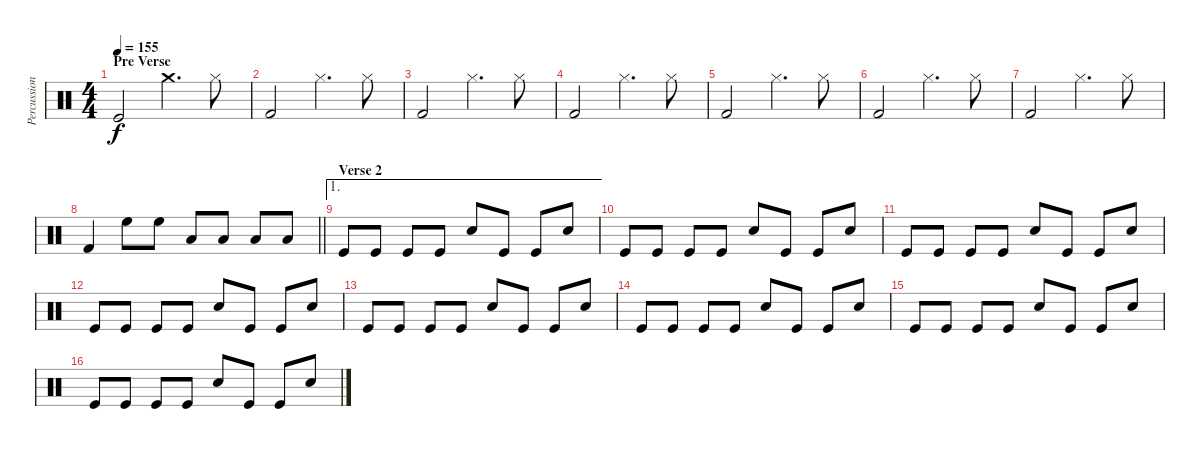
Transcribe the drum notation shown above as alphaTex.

\track ("Percussion" "Percussion") {instrument percussion}
\staff {score}
\articulation defaults
\ts (4 4)
\section ("" "Pre Verse")
\tempo 155
\clef neutral
\ks c "Kick (hit)".2{dy f} "Crash medium (hit)".4{d} "Hi-Hat (closed)".8
|
"Kick (hit) 2".2 "Hi-Hat (closed)".4{d} "Hi-Hat (closed)".8 |
"Kick (hit) 2".2 "Hi-Hat (closed)".4{d} "Hi-Hat (closed)".8 |
"Kick (hit) 2".2 "Hi-Hat (closed)".4{d} "Hi-Hat (closed)".8 |
"Kick (hit) 2".2 "Hi-Hat (closed)".4{d} "Hi-Hat (closed)".8 |
"Kick (hit) 2".2 "Hi-Hat (closed)".4{d} "Hi-Hat (closed)".8 |
"Kick (hit) 2".2 "Hi-Hat (closed)".4{d} "Hi-Hat (closed)".8 |
\barLineRight lightlight "Kick (hit) 2".4 "High Floor Tom (hit)".8 "High Floor Tom (hit)".8 "Low Tom (hit)".8 "Low Tom (hit)".8 "Low Floor Tom (hit)".8 "Low Floor Tom (hit)".8
|
\ae 1
\section ("" "Verse 2")
"Kick (hit)".8 "Kick (hit)".8 "Kick (hit)".8 "Kick (hit)".8 "Snare (hit) 2".8 "Kick (hit)".8 "Kick (hit)".8 "Snare (hit) 2".8 |
"Kick (hit)".8 "Kick (hit)".8 "Kick (hit)".8 "Kick (hit)".8 "Snare (hit) 2".8 "Kick (hit)".8 "Kick (hit)".8 "Snare (hit) 2".8 |
"Kick (hit)".8 "Kick (hit)".8 "Kick (hit)".8 "Kick (hit)".8 "Snare (hit) 2".8 "Kick (hit)".8 "Kick (hit)".8 "Snare (hit) 2".8 |
"Kick (hit)".8 "Kick (hit)".8 "Kick (hit)".8 "Kick (hit)".8 "Snare (hit) 2".8 "Kick (hit)".8 "Kick (hit)".8 "Snare (hit) 2".8 |
"Kick (hit)".8 "Kick (hit)".8 "Kick (hit)".8 "Kick (hit)".8 "Snare (hit) 2".8 "Kick (hit)".8 "Kick (hit)".8 "Snare (hit) 2".8 |
"Kick (hit)".8 "Kick (hit)".8 "Kick (hit)".8 "Kick (hit)".8 "Snare (hit) 2".8 "Kick (hit)".8 "Kick (hit)".8 "Snare (hit) 2".8 |
"Kick (hit)".8 "Kick (hit)".8 "Kick (hit)".8 "Kick (hit)".8 "Snare (hit) 2".8 "Kick (hit)".8 "Kick (hit)".8 "Snare (hit) 2".8 |
"Kick (hit)".8 "Kick (hit)".8 "Kick (hit)".8 "Kick (hit)".8 "Snare (hit) 2".8 "Kick (hit)".8 "Kick (hit)".8 "Snare (hit) 2".8
